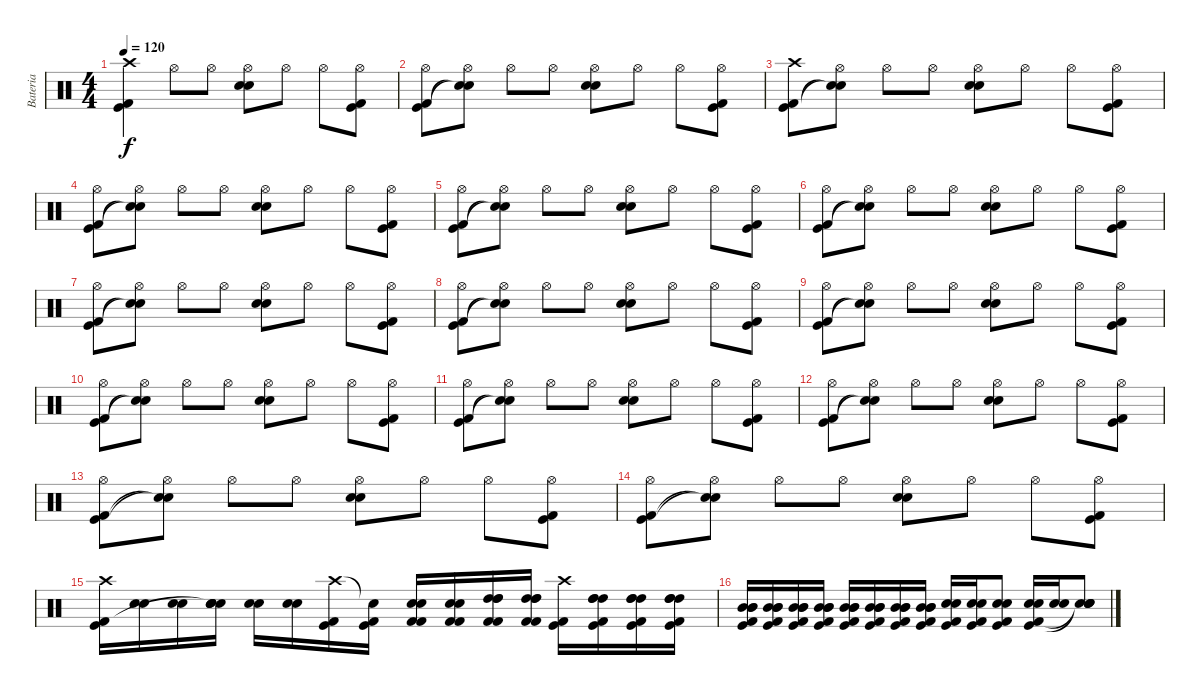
\track ("Bateria" "Bateria") {instrument percussion}
\staff {score}
\articulation defaults
\ts (4 4)
\tempo 120
\clef neutral
\ks c
("Crash high (hit)" "Kick (hit)" "Kick (hit) 2").4{dy f} "Hi-Hat (open)".8 "Hi-Hat (open)".8 ("Hi-Hat (open)" "Electric Snare (hit)" "Snare (hit) 2").8 "Hi-Hat (open)".8 "Hi-Hat (open)".8 ("Hi-Hat (open)" "Kick (hit)" "Kick (hit) 2").8 |
("Hi-Hat (open)" "Kick (hit)" "Kick (hit) 2").8 ("Hi-Hat (open)" "Snare (hit)"{t} "Snare (hit)"{t}).8 "Hi-Hat (open)".8 "Hi-Hat (open)".8 ("Hi-Hat (open)" "Electric Snare (hit)" "Snare (hit) 2").8 "Hi-Hat (open)".8 "Hi-Hat (open)".8 ("Hi-Hat (open)" "Kick (hit)" "Kick (hit) 2").8 |
("Crash high (hit)" "Kick (hit)" "Kick (hit) 2").8 ("Hi-Hat (open)" "Snare (hit)"{t} "Snare (hit)"{t}).8 "Hi-Hat (open)".8 "Hi-Hat (open)".8 ("Hi-Hat (open)" "Electric Snare (hit)" "Snare (hit) 2").8 "Hi-Hat (open)".8 "Hi-Hat (open)".8 ("Hi-Hat (open)" "Kick (hit)" "Kick (hit) 2").8 |
("Hi-Hat (open)" "Kick (hit) 2" "Kick (hit)").8 ("Hi-Hat (open)" "Snare (hit)"{t} "Snare (hit)"{t}).8 "Hi-Hat (open)".8 "Hi-Hat (open)".8 ("Hi-Hat (open)" "Electric Snare (hit)" "Snare (hit) 2").8 "Hi-Hat (open)".8 "Hi-Hat (open)".8 ("Hi-Hat (open)" "Kick (hit)" "Kick (hit) 2").8 |
("Hi-Hat (open)" "Kick (hit) 2" "Kick (hit)").8 ("Hi-Hat (open)" "Snare (hit)"{t} "Snare (hit)"{t}).8 "Hi-Hat (open)".8 "Hi-Hat (open)".8 ("Hi-Hat (open)" "Electric Snare (hit)" "Snare (hit) 2").8 "Hi-Hat (open)".8 "Hi-Hat (open)".8 ("Hi-Hat (open)" "Kick (hit)" "Kick (hit) 2").8 |
("Hi-Hat (open)" "Kick (hit) 2" "Kick (hit)").8 ("Hi-Hat (open)" "Snare (hit)"{t} "Snare (hit)"{t}).8 "Hi-Hat (open)".8 "Hi-Hat (open)".8 ("Hi-Hat (open)" "Electric Snare (hit)" "Snare (hit) 2").8 "Hi-Hat (open)".8 "Hi-Hat (open)".8 ("Hi-Hat (open)" "Kick (hit)" "Kick (hit) 2").8 |
("Hi-Hat (open)" "Kick (hit) 2" "Kick (hit)").8 ("Hi-Hat (open)" "Snare (hit)"{t} "Snare (hit)"{t}).8 "Hi-Hat (open)".8 "Hi-Hat (open)".8 ("Hi-Hat (open)" "Electric Snare (hit)" "Snare (hit) 2").8 "Hi-Hat (open)".8 "Hi-Hat (open)".8 ("Hi-Hat (open)" "Kick (hit)" "Kick (hit) 2").8 |
("Hi-Hat (open)" "Kick (hit) 2" "Kick (hit)").8 ("Hi-Hat (open)" "Snare (hit)"{t} "Snare (hit)"{t}).8 "Hi-Hat (open)".8 "Hi-Hat (open)".8 ("Hi-Hat (open)" "Electric Snare (hit)" "Snare (hit) 2").8 "Hi-Hat (open)".8 "Hi-Hat (open)".8 ("Hi-Hat (open)" "Kick (hit)" "Kick (hit) 2").8 |
("Hi-Hat (open)" "Kick (hit) 2" "Kick (hit)").8 ("Hi-Hat (open)" "Snare (hit)"{t} "Snare (hit)"{t}).8 "Hi-Hat (open)".8 "Hi-Hat (open)".8 ("Hi-Hat (open)" "Electric Snare (hit)" "Snare (hit) 2").8 "Hi-Hat (open)".8 "Hi-Hat (open)".8 ("Hi-Hat (open)" "Kick (hit)" "Kick (hit) 2").8 |
("Hi-Hat (open)" "Kick (hit) 2" "Kick (hit)").8 ("Hi-Hat (open)" "Snare (hit)"{t} "Snare (hit)"{t}).8 "Hi-Hat (open)".8 "Hi-Hat (open)".8 ("Hi-Hat (open)" "Electric Snare (hit)" "Snare (hit) 2").8 "Hi-Hat (open)".8 "Hi-Hat (open)".8 ("Hi-Hat (open)" "Kick (hit)" "Kick (hit) 2").8 |
("Hi-Hat (open)" "Kick (hit) 2" "Kick (hit)").8 ("Hi-Hat (open)" "Snare (hit)"{t} "Snare (hit)"{t}).8 "Hi-Hat (open)".8 "Hi-Hat (open)".8 ("Hi-Hat (open)" "Electric Snare (hit)" "Snare (hit) 2").8 "Hi-Hat (open)".8 "Hi-Hat (open)".8 ("Hi-Hat (open)" "Kick (hit)" "Kick (hit) 2").8 |
("Hi-Hat (open)" "Kick (hit) 2" "Kick (hit)").8 ("Hi-Hat (open)" "Snare (hit)"{t} "Snare (hit)"{t}).8 "Hi-Hat (open)".8 "Hi-Hat (open)".8 ("Hi-Hat (open)" "Electric Snare (hit)" "Snare (hit) 2").8 "Hi-Hat (open)".8 "Hi-Hat (open)".8 ("Hi-Hat (open)" "Kick (hit)" "Kick (hit) 2").8 |
("Hi-Hat (open)" "Kick (hit) 2" "Kick (hit)").8 ("Hi-Hat (open)" "Snare (hit)"{t} "Snare (hit)"{t}).8 "Hi-Hat (open)".8 "Hi-Hat (open)".8 ("Hi-Hat (open)" "Electric Snare (hit)" "Snare (hit) 2").8 "Hi-Hat (open)".8 "Hi-Hat (open)".8 ("Hi-Hat (open)" "Kick (hit)" "Kick (hit) 2").8 |
("Hi-Hat (open)" "Kick (hit) 2" "Kick (hit)").8 ("Hi-Hat (open)" "Snare (hit)"{t} "Snare (hit)"{t}).8 "Hi-Hat (open)".8 "Hi-Hat (open)".8 ("Hi-Hat (open)" "Electric Snare (hit)" "Snare (hit) 2").8 "Hi-Hat (open)".8 "Hi-Hat (open)".8 ("Hi-Hat (open)" "Kick (hit)" "Kick (hit) 2").8 |
("Crash high (hit)" "Kick (hit)" "Kick (hit) 2").16 ("Electric Snare (hit)" "Snare (hit) 2").16 ("Electric Snare (hit)" "Snare (hit) 2").16 ("Electric Snare (hit)" "Snare (hit) 2" "Snare (hit)"{t} "Snare (hit)").16 ("Electric Snare (hit)" "Snare (hit) 2").16 ("Electric Snare (hit)" "Snare (hit) 2").16 ("Crash high (hit)" "Kick (hit)" "Kick (hit) 2").16 ("Snare (hit)"{t} "Kick (hit)" "Kick (hit) 2").16 ("Electric Snare (hit)" "Snare (hit) 2" "Kick (hit) 2" "Kick (hit) 2").16 ("Electric Snare (hit)" "Snare (hit) 2" "Kick (hit) 2" "Kick (hit) 2").16 ("High Tom (hit)" "High Tom (hit)" "High Tom (hit)" "Kick (hit) 2" "Kick (hit) 2").16 ("High Tom (hit)" "High Tom (hit)" "High Tom (hit)" "Kick (hit) 2" "Kick (hit) 2").16 ("Crash high (hit)" "Kick (hit)" "Kick (hit) 2").16 ("High Tom (hit)" "High Tom (hit)" "High Tom (hit)" "Kick (hit)" "Kick (hit) 2").16 ("High Tom (hit)" "High Tom (hit)" "High Tom (hit)" "Kick (hit)" "Kick (hit) 2").16 ("High Tom (hit)" "High Tom (hit)" "High Tom (hit)" "Kick (hit)" "Kick (hit) 2").16 |
("Mid Tom (hit)" "Mid Tom (hit)" "Mid Tom (hit)" "Kick (hit) 2" "Kick (hit)").16 ("Mid Tom (hit)" "Mid Tom (hit)" "Mid Tom (hit)" "Kick (hit) 2" "Kick (hit)").16 ("Mid Tom (hit)" "Mid Tom (hit)" "Mid Tom (hit)" "Kick (hit) 2" "Kick (hit)").16 ("Mid Tom (hit)" "Mid Tom (hit)" "Mid Tom (hit)" "Kick (hit) 2" "Kick (hit)").16 ("Mid Tom (hit)" "Mid Tom (hit)" "Mid Tom (hit)" "Kick (hit) 2" "Kick (hit)").16 ("Mid Tom (hit)" "Mid Tom (hit)" "Mid Tom (hit)" "Kick (hit) 2" "Kick (hit)").16 ("Mid Tom (hit)" "Mid Tom (hit)" "Mid Tom (hit)" "Kick (hit) 2" "Kick (hit)").16 ("Mid Tom (hit)" "Mid Tom (hit)" "Mid Tom (hit)" "Kick (hit) 2" "Kick (hit)").16 ("Electric Snare (hit)" "Snare (hit) 2" "Kick (hit)" "Kick (hit) 2").16 ("Electric Snare (hit)" "Snare (hit) 2" "Kick (hit)" "Kick (hit) 2").16 ("Electric Snare (hit)" "Snare (hit) 2" "Kick (hit)" "Kick (hit) 2").8 ("Electric Snare (hit)" "Snare (hit) 2" "Kick (hit)" "Kick (hit) 2").16 ("Electric Snare (hit)" "Snare (hit) 2").16 ("Electric Snare (hit)" "Snare (hit) 2" "Snare (hit)"{t} "Snare (hit)"{t}).8
